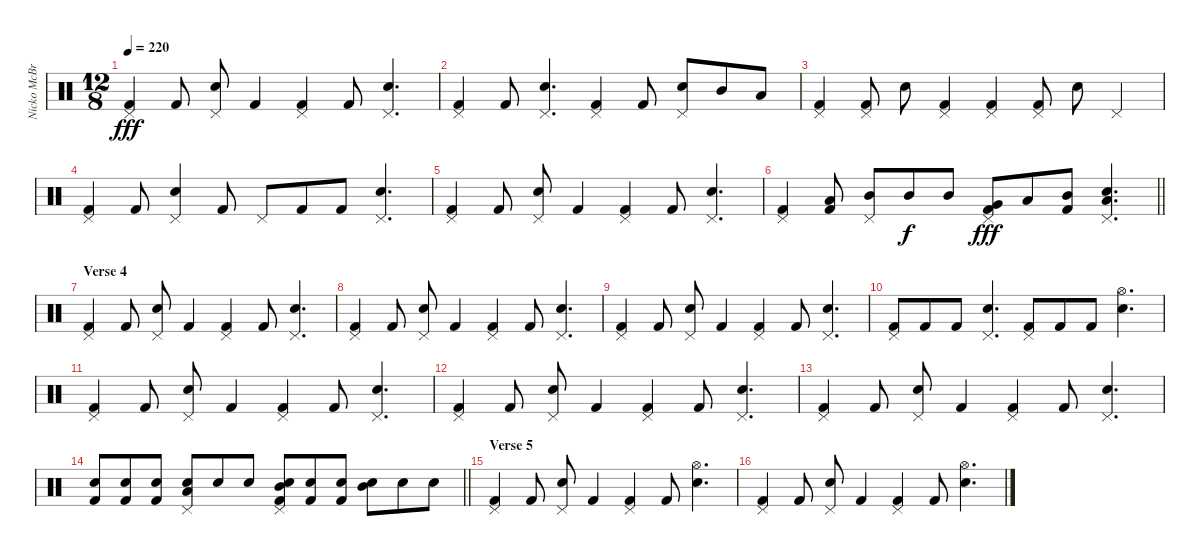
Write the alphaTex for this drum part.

\track ("Nicko McBrain" "Nicko McBr") {instrument percussion}
\staff {score}
\articulation defaults
\ts (12 8)
\tempo 220
\clef neutral
\ks c
("Pedal Hi-Hat (hit)" "Kick (hit) 2").4{dy fff} "Kick (hit) 2".8 ("Snare (hit) 2" "Pedal Hi-Hat (hit)").8 "Kick (hit) 2".4 ("Pedal Hi-Hat (hit)" "Kick (hit) 2").4 "Kick (hit) 2".8 ("Snare (hit) 2" "Pedal Hi-Hat (hit)").4{d} |
("Pedal Hi-Hat (hit)" "Kick (hit) 2").4 "Kick (hit) 2".8 ("Snare (hit) 2" "Pedal Hi-Hat (hit)").4{d} ("Pedal Hi-Hat (hit)" "Kick (hit) 2").4 "Kick (hit) 2".8 ("Snare (hit) 2" "Pedal Hi-Hat (hit)").8 "Mid Tom (hit)".8 "Low Tom (hit)".8 |
("Pedal Hi-Hat (hit)" "Kick (hit) 2").4 ("Pedal Hi-Hat (hit)" "Kick (hit) 2").8 "Snare (hit) 2".8 ("Pedal Hi-Hat (hit)" "Kick (hit) 2").4 ("Pedal Hi-Hat (hit)" "Kick (hit) 2").4 ("Pedal Hi-Hat (hit)" "Kick (hit) 2").8 "Snare (hit) 2".8 "Pedal Hi-Hat (hit)".4 |
("Pedal Hi-Hat (hit)" "Kick (hit) 2").4 "Kick (hit) 2".8 ("Snare (hit) 2" "Pedal Hi-Hat (hit)").4 "Kick (hit) 2".8 "Pedal Hi-Hat (hit)".8 "Kick (hit) 2".8 "Kick (hit) 2".8 ("Snare (hit) 2" "Pedal Hi-Hat (hit)").4{d} |
("Pedal Hi-Hat (hit)" "Kick (hit) 2").4 "Kick (hit) 2".8 ("Snare (hit) 2" "Pedal Hi-Hat (hit)").8 "Kick (hit) 2".4 ("Pedal Hi-Hat (hit)" "Kick (hit) 2").4 "Kick (hit) 2".8 ("Snare (hit) 2" "Pedal Hi-Hat (hit)").4{d} |
\barLineRight lightlight
("Pedal Hi-Hat (hit)" "Kick (hit) 2").4 ("Low Tom (hit)" "Kick (hit) 2").8 ("Mid Tom (hit)" "Pedal Hi-Hat (hit)").8 "Mid Tom (hit)".8{dy f} "Mid Tom (hit)".8 ("Very Low Tom (hit)" "Pedal Hi-Hat (hit)" "Kick (hit) 2").8{dy fff} "Low Tom (hit)".8 ("Mid Tom (hit)" "Kick (hit) 2").8 ("Snare (hit) 2" "Low Tom (hit)" "Pedal Hi-Hat (hit)").4{d} |
\section ("" "Verse 4")
("Pedal Hi-Hat (hit)" "Kick (hit) 2").4 "Kick (hit) 2".8 ("Snare (hit) 2" "Pedal Hi-Hat (hit)").8 "Kick (hit) 2".4 ("Pedal Hi-Hat (hit)" "Kick (hit) 2").4 "Kick (hit) 2".8 ("Snare (hit) 2" "Pedal Hi-Hat (hit)").4{d} |
("Pedal Hi-Hat (hit)" "Kick (hit) 2").4 "Kick (hit) 2".8 ("Snare (hit) 2" "Pedal Hi-Hat (hit)").8 "Kick (hit) 2".4 ("Pedal Hi-Hat (hit)" "Kick (hit) 2").4 "Kick (hit) 2".8 ("Snare (hit) 2" "Pedal Hi-Hat (hit)").4{d} |
("Pedal Hi-Hat (hit)" "Kick (hit) 2").4 "Kick (hit) 2".8 ("Snare (hit) 2" "Pedal Hi-Hat (hit)").8 "Kick (hit) 2".4 ("Pedal Hi-Hat (hit)" "Kick (hit) 2").4 "Kick (hit) 2".8 ("Snare (hit) 2" "Pedal Hi-Hat (hit)").4{d} |
("Pedal Hi-Hat (hit)" "Kick (hit) 2").8 "Kick (hit) 2".8 "Kick (hit) 2".8 ("Snare (hit) 2" "Pedal Hi-Hat (hit)").4{d} ("Pedal Hi-Hat (hit)" "Kick (hit) 2").8 "Kick (hit) 2".8 "Kick (hit) 2".8 ("Snare (hit) 2" "Hi-Hat (open)").4{d} |
("Pedal Hi-Hat (hit)" "Kick (hit) 2").4 "Kick (hit) 2".8 ("Snare (hit) 2" "Pedal Hi-Hat (hit)").8 "Kick (hit) 2".4 ("Pedal Hi-Hat (hit)" "Kick (hit) 2").4 "Kick (hit) 2".8 ("Snare (hit) 2" "Pedal Hi-Hat (hit)").4{d} |
("Pedal Hi-Hat (hit)" "Kick (hit) 2").4 "Kick (hit) 2".8 ("Snare (hit) 2" "Pedal Hi-Hat (hit)").8 "Kick (hit) 2".4 ("Pedal Hi-Hat (hit)" "Kick (hit) 2").4 "Kick (hit) 2".8 ("Snare (hit) 2" "Pedal Hi-Hat (hit)").4{d} |
("Pedal Hi-Hat (hit)" "Kick (hit) 2").4 "Kick (hit) 2".8 ("Snare (hit) 2" "Pedal Hi-Hat (hit)").8 "Kick (hit) 2".4 ("Pedal Hi-Hat (hit)" "Kick (hit) 2").4 "Kick (hit) 2".8 ("Snare (hit) 2" "Pedal Hi-Hat (hit)").4{d} |
\barLineRight lightlight
("Snare (hit) 2" "Kick (hit) 2").8 ("Snare (hit) 2" "Kick (hit) 2").8 ("Snare (hit) 2" "Kick (hit) 2").8 ("Snare (hit) 2" "Low Tom (hit)" "Pedal Hi-Hat (hit)").8 "Snare (hit) 2".8 "Snare (hit) 2".8 ("Mid Tom (hit)" "Snare (hit) 2" "Pedal Hi-Hat (hit)" "Kick (hit) 2").8 ("Snare (hit) 2" "Kick (hit) 2").8 ("Snare (hit) 2" "Kick (hit) 2").8 ("Mid Tom (hit)" "Snare (hit) 2").8 "Snare (hit) 2".8 "Snare (hit) 2".8 |
\section ("" "Verse 5")
("Pedal Hi-Hat (hit)" "Kick (hit) 2").4 "Kick (hit) 2".8 ("Snare (hit) 2" "Pedal Hi-Hat (hit)").8 "Kick (hit) 2".4 ("Pedal Hi-Hat (hit)" "Kick (hit) 2").4 "Kick (hit) 2".8 ("Snare (hit) 2" "Hi-Hat (open)").4{d} |
("Pedal Hi-Hat (hit)" "Kick (hit) 2").4 "Kick (hit) 2".8 ("Snare (hit) 2" "Pedal Hi-Hat (hit)").8 "Kick (hit) 2".4 ("Pedal Hi-Hat (hit)" "Kick (hit) 2").4 "Kick (hit) 2".8 ("Snare (hit) 2" "Hi-Hat (open)").4{d}
